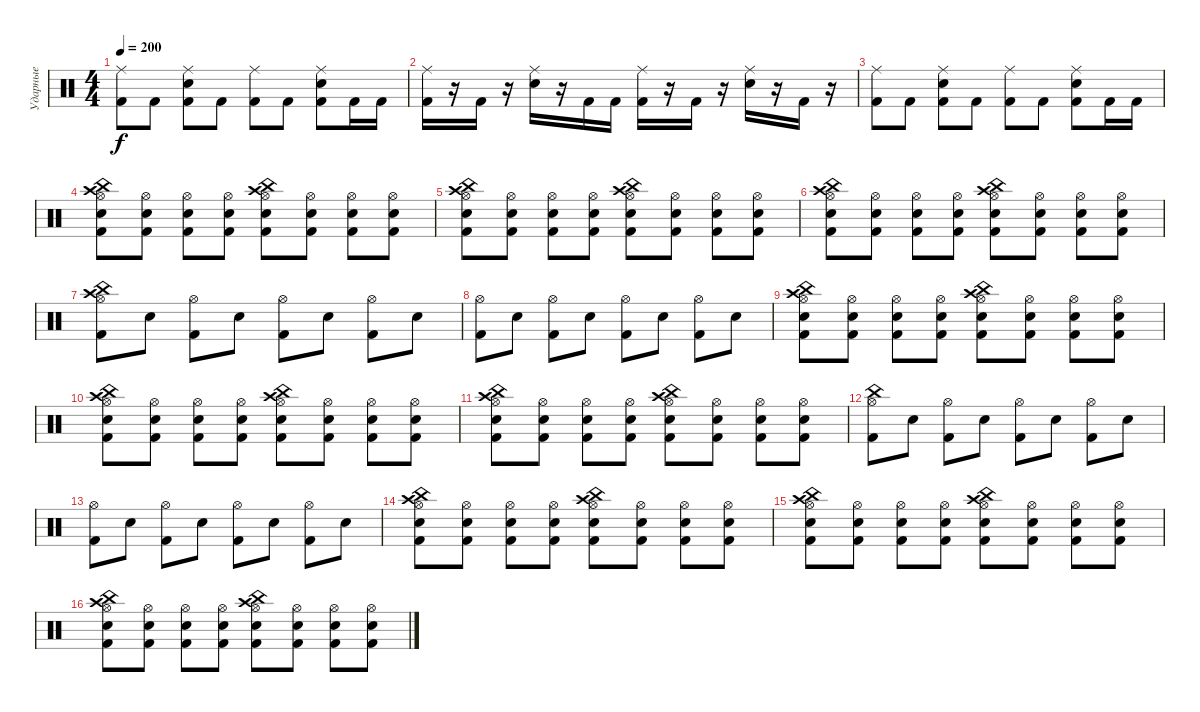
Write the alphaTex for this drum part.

\track ("Ударные" "Ударные") {instrument percussion}
\staff {score}
\articulation defaults
\ts (4 4)
\tempo 200
\clef neutral
\ks c
("Ride (middle)" "Kick (hit) 2").8{dy f} "Kick (hit) 2".8 ("Electric Snare (hit)" "Ride (middle)" "Kick (hit) 2").8 "Kick (hit) 2".8 ("Ride (middle)" "Kick (hit) 2").8 "Kick (hit) 2".8 ("Electric Snare (hit)" "Ride (middle)" "Kick (hit) 2").8 "Kick (hit) 2".16 "Kick (hit) 2".16 |
("Kick (hit) 2" "Ride (middle)").16 r.16 "Kick (hit) 2".16 r.16 ("Electric Snare (hit)" "Ride (middle)").16 r.16 "Kick (hit) 2".16 "Kick (hit) 2".16 ("Kick (hit) 2" "Ride (middle)").16 r.16 "Kick (hit) 2".16 r.16 ("Electric Snare (hit)" "Ride (middle)").16 r.16 "Kick (hit) 2".16 r.16 |
("Ride (middle)" "Kick (hit) 2").8 "Kick (hit) 2".8 ("Electric Snare (hit)" "Ride (middle)" "Kick (hit) 2").8 "Kick (hit) 2".8 ("Ride (middle)" "Kick (hit) 2").8 "Kick (hit) 2".8 ("Electric Snare (hit)" "Ride (middle)" "Kick (hit) 2").8 "Kick (hit) 2".16 "Kick (hit) 2".16 |
("Kick (hit) 2" "Electric Snare (hit)" "Hi-Hat (open)" "Crash high (hit)" "China (hit)").8 ("Hi-Hat (open)" "Kick (hit) 2" "Electric Snare (hit)").8 ("Electric Snare (hit)" "Kick (hit) 2" "Hi-Hat (open)").8 ("Hi-Hat (open)" "Kick (hit) 2" "Electric Snare (hit)").8 ("Electric Snare (hit)" "Kick (hit) 2" "Hi-Hat (open)" "China (hit)" "Crash high (hit)").8 ("Hi-Hat (open)" "Kick (hit) 2" "Electric Snare (hit)").8 ("Electric Snare (hit)" "Kick (hit) 2" "Hi-Hat (open)").8 ("Hi-Hat (open)" "Kick (hit) 2" "Electric Snare (hit)").8 |
("Kick (hit) 2" "Electric Snare (hit)" "Hi-Hat (open)" "Crash high (hit)" "China (hit)").8 ("Hi-Hat (open)" "Kick (hit) 2" "Electric Snare (hit)").8 ("Electric Snare (hit)" "Kick (hit) 2" "Hi-Hat (open)").8 ("Hi-Hat (open)" "Kick (hit) 2" "Electric Snare (hit)").8 ("Electric Snare (hit)" "Kick (hit) 2" "Hi-Hat (open)" "China (hit)" "Crash high (hit)").8 ("Hi-Hat (open)" "Kick (hit) 2" "Electric Snare (hit)").8 ("Electric Snare (hit)" "Kick (hit) 2" "Hi-Hat (open)").8 ("Hi-Hat (open)" "Kick (hit) 2" "Electric Snare (hit)").8 |
("Kick (hit) 2" "Electric Snare (hit)" "Hi-Hat (open)" "Crash high (hit)" "China (hit)").8 ("Hi-Hat (open)" "Kick (hit) 2" "Electric Snare (hit)").8 ("Electric Snare (hit)" "Kick (hit) 2" "Hi-Hat (open)").8 ("Hi-Hat (open)" "Kick (hit) 2" "Electric Snare (hit)").8 ("Electric Snare (hit)" "Kick (hit) 2" "Hi-Hat (open)" "China (hit)" "Crash high (hit)").8 ("Hi-Hat (open)" "Kick (hit) 2" "Electric Snare (hit)").8 ("Electric Snare (hit)" "Kick (hit) 2" "Hi-Hat (open)").8 ("Hi-Hat (open)" "Kick (hit) 2" "Electric Snare (hit)").8 |
("Kick (hit) 2" "Hi-Hat (open)" "Crash high (hit)" "China (hit)").8 "Electric Snare (hit)".8 ("Kick (hit) 2" "Hi-Hat (open)").8 "Electric Snare (hit)".8 ("Kick (hit) 2" "Hi-Hat (open)").8 "Electric Snare (hit)".8 ("Kick (hit) 2" "Hi-Hat (open)").8 "Electric Snare (hit)".8 |
("Kick (hit) 2" "Hi-Hat (open)").8 "Electric Snare (hit)".8 ("Kick (hit) 2" "Hi-Hat (open)").8 "Electric Snare (hit)".8 ("Kick (hit) 2" "Hi-Hat (open)").8 "Electric Snare (hit)".8 ("Kick (hit) 2" "Hi-Hat (open)").8 "Electric Snare (hit)".8 |
("Kick (hit) 2" "Electric Snare (hit)" "Hi-Hat (open)" "China (hit)" "Crash high (hit)").8 ("Hi-Hat (open)" "Kick (hit) 2" "Electric Snare (hit)").8 ("Electric Snare (hit)" "Kick (hit) 2" "Hi-Hat (open)").8 ("Hi-Hat (open)" "Kick (hit) 2" "Electric Snare (hit)").8 ("Electric Snare (hit)" "Kick (hit) 2" "Hi-Hat (open)" "Crash high (hit)" "China (hit)").8 ("Hi-Hat (open)" "Kick (hit) 2" "Electric Snare (hit)").8 ("Electric Snare (hit)" "Kick (hit) 2" "Hi-Hat (open)").8 ("Hi-Hat (open)" "Kick (hit) 2" "Electric Snare (hit)").8 |
("Kick (hit) 2" "Electric Snare (hit)" "Hi-Hat (open)" "China (hit)" "Crash high (hit)").8 ("Hi-Hat (open)" "Kick (hit) 2" "Electric Snare (hit)").8 ("Electric Snare (hit)" "Kick (hit) 2" "Hi-Hat (open)").8 ("Hi-Hat (open)" "Kick (hit) 2" "Electric Snare (hit)").8 ("Electric Snare (hit)" "Kick (hit) 2" "Hi-Hat (open)" "Crash high (hit)" "China (hit)").8 ("Hi-Hat (open)" "Kick (hit) 2" "Electric Snare (hit)").8 ("Electric Snare (hit)" "Kick (hit) 2" "Hi-Hat (open)").8 ("Hi-Hat (open)" "Kick (hit) 2" "Electric Snare (hit)").8 |
("Kick (hit) 2" "Electric Snare (hit)" "Hi-Hat (open)" "China (hit)" "Crash high (hit)").8 ("Hi-Hat (open)" "Kick (hit) 2" "Electric Snare (hit)").8 ("Electric Snare (hit)" "Kick (hit) 2" "Hi-Hat (open)").8 ("Hi-Hat (open)" "Kick (hit) 2" "Electric Snare (hit)").8 ("Electric Snare (hit)" "Kick (hit) 2" "Hi-Hat (open)" "Crash high (hit)" "China (hit)").8 ("Hi-Hat (open)" "Kick (hit) 2" "Electric Snare (hit)").8 ("Electric Snare (hit)" "Kick (hit) 2" "Hi-Hat (open)").8 ("Hi-Hat (open)" "Kick (hit) 2" "Electric Snare (hit)").8 |
("Kick (hit) 2" "Hi-Hat (open)" "China (hit)").8 "Electric Snare (hit)".8 ("Kick (hit) 2" "Hi-Hat (open)").8 "Electric Snare (hit)".8 ("Kick (hit) 2" "Hi-Hat (open)").8 "Electric Snare (hit)".8 ("Kick (hit) 2" "Hi-Hat (open)").8 "Electric Snare (hit)".8 |
("Kick (hit) 2" "Hi-Hat (open)").8 "Electric Snare (hit)".8 ("Kick (hit) 2" "Hi-Hat (open)").8 "Electric Snare (hit)".8 ("Kick (hit) 2" "Hi-Hat (open)").8 "Electric Snare (hit)".8 ("Kick (hit) 2" "Hi-Hat (open)").8 "Electric Snare (hit)".8 |
("Kick (hit) 2" "Electric Snare (hit)" "Hi-Hat (open)" "China (hit)" "Crash high (hit)").8 ("Hi-Hat (open)" "Kick (hit) 2" "Electric Snare (hit)").8 ("Electric Snare (hit)" "Kick (hit) 2" "Hi-Hat (open)").8 ("Hi-Hat (open)" "Kick (hit) 2" "Electric Snare (hit)").8 ("Electric Snare (hit)" "Kick (hit) 2" "Hi-Hat (open)" "Crash high (hit)" "China (hit)").8 ("Hi-Hat (open)" "Kick (hit) 2" "Electric Snare (hit)").8 ("Electric Snare (hit)" "Kick (hit) 2" "Hi-Hat (open)").8 ("Hi-Hat (open)" "Kick (hit) 2" "Electric Snare (hit)").8 |
("Kick (hit) 2" "Electric Snare (hit)" "Hi-Hat (open)" "China (hit)" "Crash high (hit)").8 ("Hi-Hat (open)" "Kick (hit) 2" "Electric Snare (hit)").8 ("Electric Snare (hit)" "Kick (hit) 2" "Hi-Hat (open)").8 ("Hi-Hat (open)" "Kick (hit) 2" "Electric Snare (hit)").8 ("Electric Snare (hit)" "Kick (hit) 2" "Hi-Hat (open)" "Crash high (hit)" "China (hit)").8 ("Hi-Hat (open)" "Kick (hit) 2" "Electric Snare (hit)").8 ("Electric Snare (hit)" "Kick (hit) 2" "Hi-Hat (open)").8 ("Hi-Hat (open)" "Kick (hit) 2" "Electric Snare (hit)").8 |
("Kick (hit) 2" "Electric Snare (hit)" "Hi-Hat (open)" "China (hit)" "Crash high (hit)").8 ("Hi-Hat (open)" "Kick (hit) 2" "Electric Snare (hit)").8 ("Electric Snare (hit)" "Kick (hit) 2" "Hi-Hat (open)").8 ("Hi-Hat (open)" "Kick (hit) 2" "Electric Snare (hit)").8 ("Electric Snare (hit)" "Kick (hit) 2" "Hi-Hat (open)" "Crash high (hit)" "China (hit)").8 ("Hi-Hat (open)" "Kick (hit) 2" "Electric Snare (hit)").8 ("Electric Snare (hit)" "Kick (hit) 2" "Hi-Hat (open)").8 ("Hi-Hat (open)" "Kick (hit) 2" "Electric Snare (hit)").8
